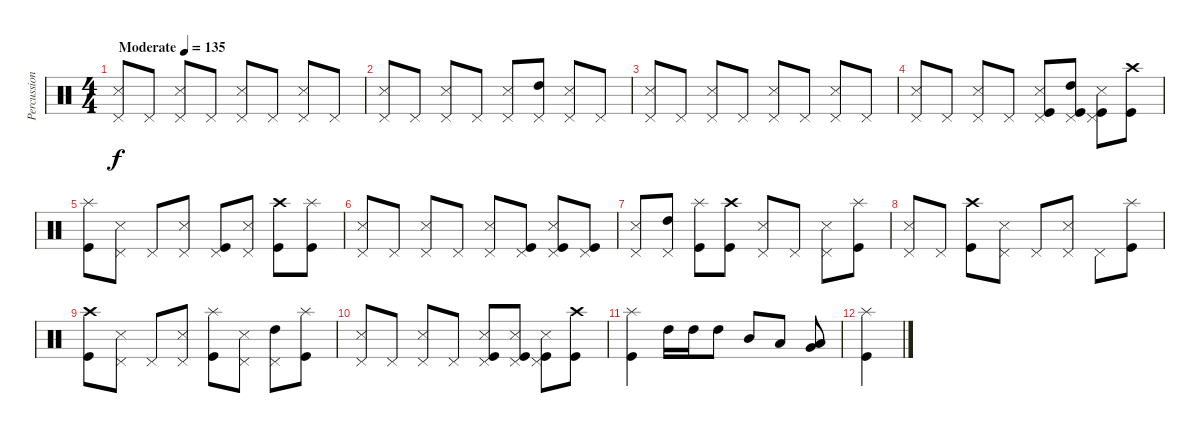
\track ("Percussion" "Percussion") {instrument percussion}
\staff {score}
\articulation defaults
\ts (4 4)
\tempo (135 "Moderate")
\clef neutral
\ks c
("Snare (side stick) 3" "Pedal Hi-Hat (hit)").8{dy f} "Pedal Hi-Hat (hit)".8 ("Snare (side stick) 3" "Pedal Hi-Hat (hit)").8 "Pedal Hi-Hat (hit)".8 ("Snare (side stick) 3" "Pedal Hi-Hat (hit)").8 "Pedal Hi-Hat (hit)".8 ("Snare (side stick) 3" "Pedal Hi-Hat (hit)").8 "Pedal Hi-Hat (hit)".8 |
("Snare (side stick) 3" "Pedal Hi-Hat (hit)").8 "Pedal Hi-Hat (hit)".8 ("Snare (side stick) 3" "Pedal Hi-Hat (hit)").8 "Pedal Hi-Hat (hit)".8 ("Snare (side stick) 3" "Pedal Hi-Hat (hit)").8 ("High Tom (hit)" "Pedal Hi-Hat (hit)").8 ("Snare (side stick) 3" "Pedal Hi-Hat (hit)").8 "Pedal Hi-Hat (hit)".8 |
("Snare (side stick) 3" "Pedal Hi-Hat (hit)").8 "Pedal Hi-Hat (hit)".8 ("Snare (side stick) 3" "Pedal Hi-Hat (hit)").8 "Pedal Hi-Hat (hit)".8 ("Snare (side stick) 3" "Pedal Hi-Hat (hit)").8 "Pedal Hi-Hat (hit)".8 ("Snare (side stick) 3" "Pedal Hi-Hat (hit)").8 "Pedal Hi-Hat (hit)".8 |
("Snare (side stick) 3" "Pedal Hi-Hat (hit)").8 "Pedal Hi-Hat (hit)".8 ("Snare (side stick) 3" "Pedal Hi-Hat (hit)").8 "Pedal Hi-Hat (hit)".8 ("Kick (hit)" "Snare (side stick) 3" "Pedal Hi-Hat (hit)").8 ("Kick (hit)" "High Tom (hit)" "Pedal Hi-Hat (hit)").8 ("Kick (hit)" "Snare (side stick) 3" "Pedal Hi-Hat (hit)").8 ("Kick (hit)" "Crash high (hit)").8 |
("Kick (hit)" "Splash (hit)").8 ("Snare (side stick) 3" "Pedal Hi-Hat (hit)").8 "Pedal Hi-Hat (hit)".8 ("Snare (side stick) 3" "Pedal Hi-Hat (hit)").8 ("Kick (hit)" "Pedal Hi-Hat (hit)").8 ("Snare (side stick) 3" "Pedal Hi-Hat (hit)").8 ("Crash high (hit)" "Kick (hit)").8 ("Splash (hit)" "Kick (hit)").8 |
("Snare (side stick) 3" "Pedal Hi-Hat (hit)").8 "Pedal Hi-Hat (hit)".8 ("Snare (side stick) 3" "Pedal Hi-Hat (hit)").8 "Pedal Hi-Hat (hit)".8 ("Snare (side stick) 3" "Pedal Hi-Hat (hit)").8 ("Kick (hit)" "Pedal Hi-Hat (hit)").8 ("Kick (hit)" "Snare (side stick) 3" "Pedal Hi-Hat (hit)").8 ("Kick (hit)" "Pedal Hi-Hat (hit)").8 |
("Snare (side stick) 3" "Pedal Hi-Hat (hit)").8 ("High Tom (hit)" "Pedal Hi-Hat (hit)").8 ("Splash (hit)" "Kick (hit)").8 ("Crash high (hit)" "Kick (hit)").8 ("Pedal Hi-Hat (hit)" "Snare (side stick) 3").8 "Pedal Hi-Hat (hit)".8 ("Snare (side stick) 3" "Pedal Hi-Hat (hit)").8 ("Splash (hit)" "Kick (hit)").8 |
("Snare (side stick) 3" "Pedal Hi-Hat (hit)").8 "Pedal Hi-Hat (hit)".8 ("Crash high (hit)" "Kick (hit)").8 ("Snare (side stick) 3" "Pedal Hi-Hat (hit)").8 "Pedal Hi-Hat (hit)".8 ("Snare (side stick) 3" "Pedal Hi-Hat (hit)").8 "Pedal Hi-Hat (hit)".8 ("Splash (hit)" "Kick (hit)").8 |
("Crash high (hit)" "Kick (hit)").8 ("Snare (side stick) 3" "Pedal Hi-Hat (hit)").8 "Pedal Hi-Hat (hit)".8 ("Snare (side stick) 3" "Pedal Hi-Hat (hit)").8 ("Splash (hit)" "Kick (hit)").8 ("Snare (side stick) 3" "Pedal Hi-Hat (hit)").8 ("High Tom (hit)" "Pedal Hi-Hat (hit)").8 ("Splash (hit)" "Kick (hit)").8 |
("Snare (side stick) 3" "Pedal Hi-Hat (hit)").8 "Pedal Hi-Hat (hit)".8 ("Snare (side stick) 3" "Pedal Hi-Hat (hit)").8 "Pedal Hi-Hat (hit)".8 ("Kick (hit)" "Snare (side stick) 3" "Pedal Hi-Hat (hit)").8 ("Kick (hit)" "Snare (side stick) 3" "Pedal Hi-Hat (hit)").8 ("Kick (hit)" "Snare (side stick) 3" "Pedal Hi-Hat (hit)").8 ("Crash high (hit)" "Kick (hit)").8 |
("Splash (hit)" "Kick (hit)").4 "High Tom (hit)".16 "High Tom (hit)".16 "High Tom (hit)".8 "Mid Tom (hit)".8 "Low Tom (hit)".8 ("Low Floor Tom (hit)" "Very Low Tom (hit)").8 |
("Splash (hit)" "Kick (hit)").4
